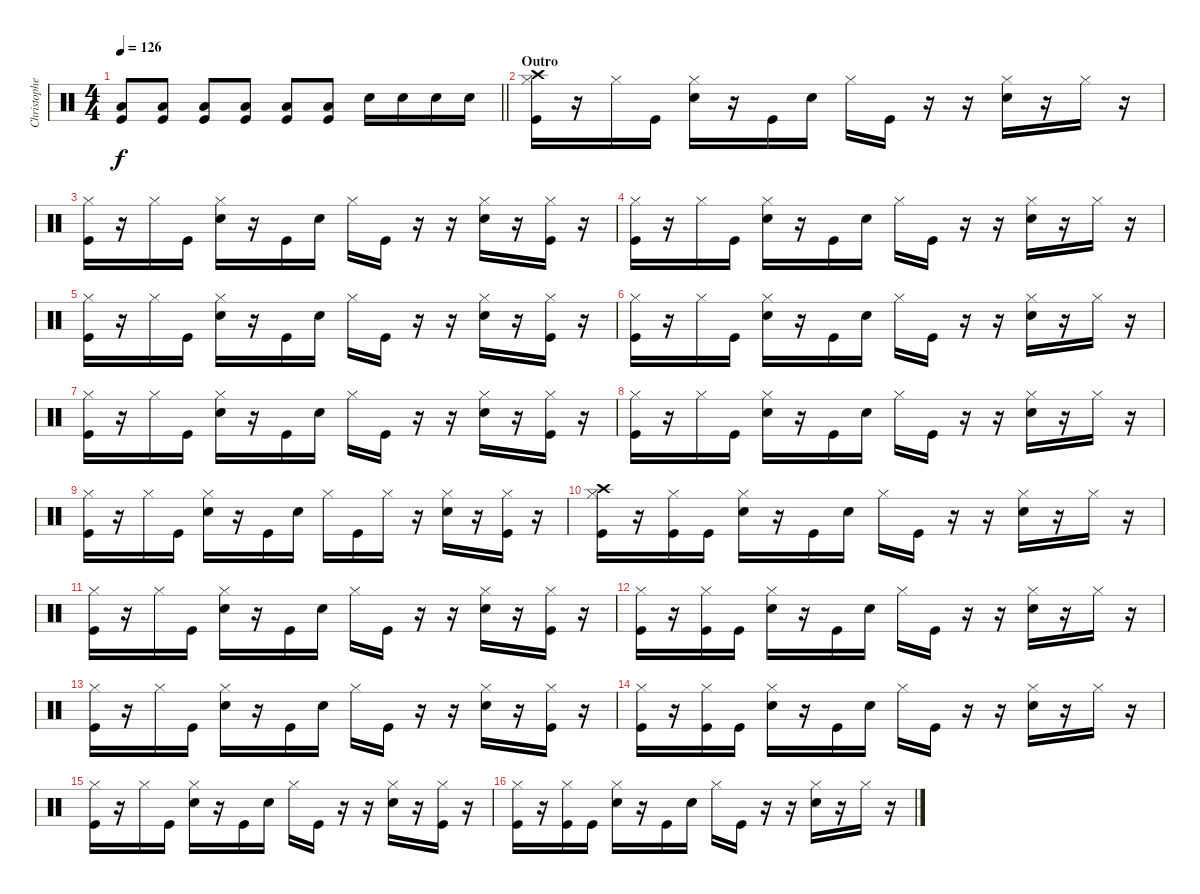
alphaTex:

\track ("Christopher - Drums" "Christophe") {instrument percussion}
\staff {score}
\articulation defaults
\ts (4 4)
\tempo 126
\clef neutral
\barLineRight lightlight
\ks c
("Low Floor Tom (hit)" "Kick (hit)").8{dy f} ("Low Floor Tom (hit)" "Kick (hit)").8 ("Low Floor Tom (hit)" "Kick (hit)").8 ("Low Floor Tom (hit)" "Kick (hit)").8 ("Low Floor Tom (hit)" "Kick (hit)").8 ("Low Floor Tom (hit)" "Kick (hit)").8 "Snare (hit) 2".16 "Snare (hit) 2".16 "Snare (hit) 2".16 "Snare (hit) 2".16 |
\section ("" "Outro")
("Crash high (hit)" "Hi-Hat (closed)" "Kick (hit)").16 r.16 "Hi-Hat (closed)".16 "Kick (hit)".16 ("Hi-Hat (closed)" "Snare (hit) 2").16 r.16 "Kick (hit)".16 "Snare (hit) 2".16 "Hi-Hat (closed)".16 "Kick (hit)".16 r.16 r.16 ("Hi-Hat (closed)" "Snare (hit) 2").16 r.16 "Hi-Hat (closed)".16 r.16 |
("Hi-Hat (closed)" "Kick (hit)").16 r.16 "Hi-Hat (closed)".16 "Kick (hit)".16 ("Hi-Hat (closed)" "Snare (hit) 2").16 r.16 "Kick (hit)".16 "Snare (hit) 2".16 "Hi-Hat (closed)".16 "Kick (hit)".16 r.16 r.16 ("Hi-Hat (closed)" "Snare (hit) 2").16 r.16 ("Hi-Hat (closed)" "Kick (hit)").16 r.16 |
("Hi-Hat (closed)" "Kick (hit)").16 r.16 "Hi-Hat (closed)".16 "Kick (hit)".16 ("Hi-Hat (closed)" "Snare (hit) 2").16 r.16 "Kick (hit)".16 "Snare (hit) 2".16 "Hi-Hat (closed)".16 "Kick (hit)".16 r.16 r.16 ("Hi-Hat (closed)" "Snare (hit) 2").16 r.16 "Hi-Hat (closed)".16 r.16 |
("Hi-Hat (closed)" "Kick (hit)").16 r.16 "Hi-Hat (closed)".16 "Kick (hit)".16 ("Hi-Hat (closed)" "Snare (hit) 2").16 r.16 "Kick (hit)".16 "Snare (hit) 2".16 "Hi-Hat (closed)".16 "Kick (hit)".16 r.16 r.16 ("Hi-Hat (closed)" "Snare (hit) 2").16 r.16 ("Hi-Hat (closed)" "Kick (hit)").16 r.16 |
("Hi-Hat (closed)" "Kick (hit)").16 r.16 "Hi-Hat (closed)".16 "Kick (hit)".16 ("Hi-Hat (closed)" "Snare (hit) 2").16 r.16 "Kick (hit)".16 "Snare (hit) 2".16 "Hi-Hat (closed)".16 "Kick (hit)".16 r.16 r.16 ("Hi-Hat (closed)" "Snare (hit) 2").16 r.16 "Hi-Hat (closed)".16 r.16 |
("Hi-Hat (closed)" "Kick (hit)").16 r.16 "Hi-Hat (closed)".16 "Kick (hit)".16 ("Hi-Hat (closed)" "Snare (hit) 2").16 r.16 "Kick (hit)".16 "Snare (hit) 2".16 "Hi-Hat (closed)".16 "Kick (hit)".16 r.16 r.16 ("Hi-Hat (closed)" "Snare (hit) 2").16 r.16 ("Hi-Hat (closed)" "Kick (hit)").16 r.16 |
("Hi-Hat (closed)" "Kick (hit)").16 r.16 "Hi-Hat (closed)".16 "Kick (hit)".16 ("Hi-Hat (closed)" "Snare (hit) 2").16 r.16 "Kick (hit)".16 "Snare (hit) 2".16 "Hi-Hat (closed)".16 "Kick (hit)".16 r.16 r.16 ("Hi-Hat (closed)" "Snare (hit) 2").16 r.16 "Hi-Hat (closed)".16 r.16 |
("Hi-Hat (closed)" "Kick (hit)").16 r.16 "Hi-Hat (closed)".16 "Kick (hit)".16 ("Hi-Hat (closed)" "Snare (hit) 2").16 r.16 "Kick (hit)".16 "Snare (hit) 2".16 "Hi-Hat (closed)".16 "Kick (hit)".16 "Hi-Hat (closed)".16 r.16 ("Hi-Hat (closed)" "Snare (hit) 2").16 r.16 ("Hi-Hat (closed)" "Kick (hit)").16 r.16 |
("Crash high (hit)" "Hi-Hat (closed)" "Kick (hit)").16 r.16 ("Hi-Hat (closed)" "Kick (hit)").16 "Kick (hit)".16 ("Hi-Hat (closed)" "Snare (hit) 2").16 r.16 "Kick (hit)".16 "Snare (hit) 2".16 "Hi-Hat (closed)".16 "Kick (hit)".16 r.16 r.16 ("Hi-Hat (closed)" "Snare (hit) 2").16 r.16 "Hi-Hat (closed)".16 r.16 |
("Hi-Hat (closed)" "Kick (hit)").16 r.16 "Hi-Hat (closed)".16 "Kick (hit)".16 ("Hi-Hat (closed)" "Snare (hit) 2").16 r.16 "Kick (hit)".16 "Snare (hit) 2".16 "Hi-Hat (closed)".16 "Kick (hit)".16 r.16 r.16 ("Hi-Hat (closed)" "Snare (hit) 2").16 r.16 ("Hi-Hat (closed)" "Kick (hit)").16 r.16 |
("Hi-Hat (closed)" "Kick (hit)").16 r.16 ("Hi-Hat (closed)" "Kick (hit)").16 "Kick (hit)".16 ("Hi-Hat (closed)" "Snare (hit) 2").16 r.16 "Kick (hit)".16 "Snare (hit) 2".16 "Hi-Hat (closed)".16 "Kick (hit)".16 r.16 r.16 ("Hi-Hat (closed)" "Snare (hit) 2").16 r.16 "Hi-Hat (closed)".16 r.16 |
("Hi-Hat (closed)" "Kick (hit)").16 r.16 "Hi-Hat (closed)".16 "Kick (hit)".16 ("Hi-Hat (closed)" "Snare (hit) 2").16 r.16 "Kick (hit)".16 "Snare (hit) 2".16 "Hi-Hat (closed)".16 "Kick (hit)".16 r.16 r.16 ("Hi-Hat (closed)" "Snare (hit) 2").16 r.16 ("Hi-Hat (closed)" "Kick (hit)").16 r.16 |
("Hi-Hat (closed)" "Kick (hit)").16 r.16 ("Hi-Hat (closed)" "Kick (hit)").16 "Kick (hit)".16 ("Hi-Hat (closed)" "Snare (hit) 2").16 r.16 "Kick (hit)".16 "Snare (hit) 2".16 "Hi-Hat (closed)".16 "Kick (hit)".16 r.16 r.16 ("Hi-Hat (closed)" "Snare (hit) 2").16 r.16 "Hi-Hat (closed)".16 r.16 |
("Hi-Hat (closed)" "Kick (hit)").16 r.16 "Hi-Hat (closed)".16 "Kick (hit)".16 ("Hi-Hat (closed)" "Snare (hit) 2").16 r.16 "Kick (hit)".16 "Snare (hit) 2".16 "Hi-Hat (closed)".16 "Kick (hit)".16 r.16 r.16 ("Hi-Hat (closed)" "Snare (hit) 2").16 r.16 ("Hi-Hat (closed)" "Kick (hit)").16 r.16 |
("Hi-Hat (closed)" "Kick (hit)").16 r.16 ("Hi-Hat (closed)" "Kick (hit)").16 "Kick (hit)".16 ("Hi-Hat (closed)" "Snare (hit) 2").16 r.16 "Kick (hit)".16 "Snare (hit) 2".16 "Hi-Hat (closed)".16 "Kick (hit)".16 r.16 r.16 ("Hi-Hat (closed)" "Snare (hit) 2").16 r.16 "Hi-Hat (closed)".16 r.16
